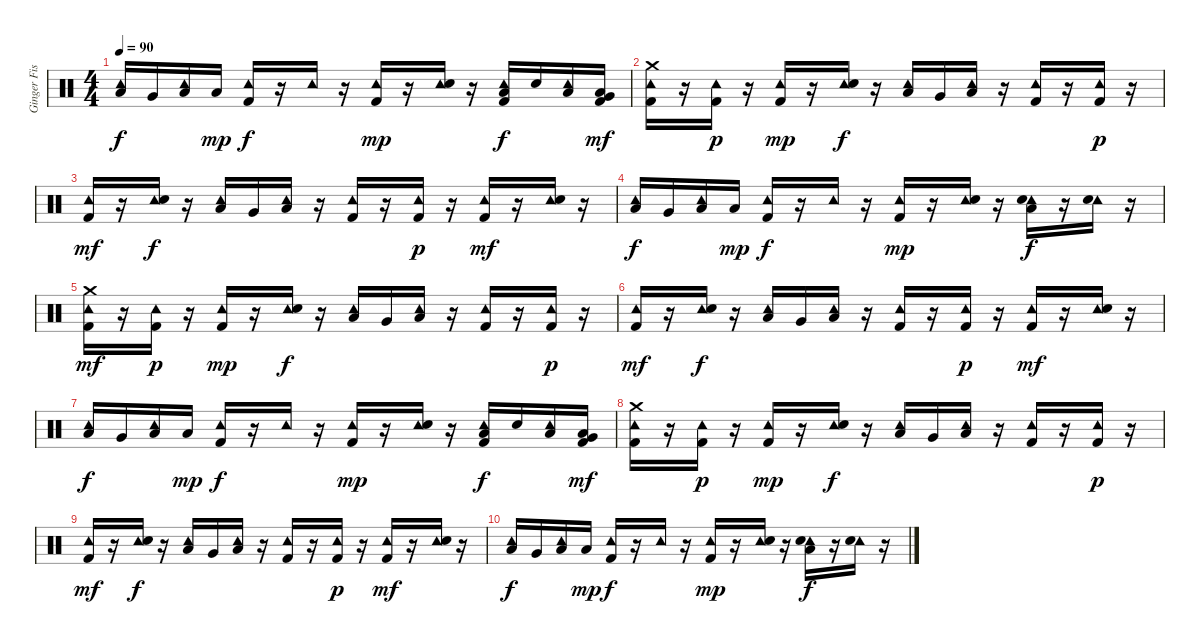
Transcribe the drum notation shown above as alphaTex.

\track ("Ginger Fish" "Ginger Fis") {instrument percussion}
\staff {score}
\articulation defaults
\ts (4 4)
\tempo 90
\clef neutral
\ks c
("Tambourine (hit)" "Low Floor Tom (hit)").16{dy f} "Very Low Tom (hit)".16 ("Tambourine (hit)" "Low Floor Tom (hit)").16 "Low Tom (hit)".16{dy mp} ("Tambourine (hit)" "Kick (hit) 2").16{dy f} r.16 "Tambourine (hit)".16 r.16 ("Tambourine (hit)" "Kick (hit) 2").16{dy mp} r.16 ("Tambourine (hit)" "Electric Snare (hit)").16 r.16 ("Tambourine (hit)" "Kick (hit) 2" "Low Floor Tom (hit)").16{dy f} "Electric Snare (hit)".16 ("Tambourine (hit)" "Low Floor Tom (hit)").16 ("Kick (hit) 2" "Low Tom (hit)" "Very Low Tom (hit)").16{dy mf} |
("Tambourine (hit)" "Crash medium (hit)" "Kick (hit) 2").16 r.16 ("Tambourine (hit)" "Kick (hit) 2").16{dy p} r.16 ("Tambourine (hit)" "Kick (hit) 2").16{dy mp} r.16 ("Tambourine (hit)" "Electric Snare (hit)").16{dy f} r.16 ("Tambourine (hit)" "Low Floor Tom (hit)").16 "Very Low Tom (hit)".16 ("Tambourine (hit)" "Low Floor Tom (hit)").16 r.16 ("Tambourine (hit)" "Kick (hit) 2").16 r.16 ("Tambourine (hit)" "Kick (hit) 2").16{dy p} r.16 |
("Tambourine (hit)" "Kick (hit) 2").16{dy mf} r.16 ("Tambourine (hit)" "Electric Snare (hit)").16{dy f} r.16 ("Tambourine (hit)" "Low Floor Tom (hit)").16 "Very Low Tom (hit)".16 ("Tambourine (hit)" "Low Floor Tom (hit)").16 r.16 ("Tambourine (hit)" "Kick (hit) 2").16 r.16 ("Tambourine (hit)" "Kick (hit) 2").16{dy p} r.16 ("Tambourine (hit)" "Kick (hit) 2").16{dy mf} r.16 ("Tambourine (hit)" "Electric Snare (hit)").16 r.16 |
("Tambourine (hit)" "Low Floor Tom (hit)").16{dy f} "Very Low Tom (hit)".16 ("Tambourine (hit)" "Low Floor Tom (hit)").16 "Low Tom (hit)".16{dy mp} ("Tambourine (hit)" "Kick (hit) 2").16{dy f} r.16 "Tambourine (hit)".16 r.16 ("Tambourine (hit)" "Kick (hit) 2").16{dy mp} r.16 ("Tambourine (hit)" "Electric Snare (hit)").16 r.16 ("Tambourine (hit)" "Electric Snare (hit)" "Low Floor Tom (hit)").16{dy f} r.16 ("Tambourine (hit)" "Electric Snare (hit)").16 r.16 |
("Tambourine (hit)" "Crash medium (hit)" "Kick (hit) 2").16{dy mf} r.16 ("Tambourine (hit)" "Kick (hit) 2").16{dy p} r.16 ("Tambourine (hit)" "Kick (hit) 2").16{dy mp} r.16 ("Tambourine (hit)" "Electric Snare (hit)").16{dy f} r.16 ("Tambourine (hit)" "Low Floor Tom (hit)").16 "Very Low Tom (hit)".16 ("Tambourine (hit)" "Low Floor Tom (hit)").16 r.16 ("Tambourine (hit)" "Kick (hit) 2").16 r.16 ("Tambourine (hit)" "Kick (hit) 2").16{dy p} r.16 |
("Tambourine (hit)" "Kick (hit) 2").16{dy mf} r.16 ("Tambourine (hit)" "Electric Snare (hit)").16{dy f} r.16 ("Tambourine (hit)" "Low Floor Tom (hit)").16 "Very Low Tom (hit)".16 ("Tambourine (hit)" "Low Floor Tom (hit)").16 r.16 ("Tambourine (hit)" "Kick (hit) 2").16 r.16 ("Tambourine (hit)" "Kick (hit) 2").16{dy p} r.16 ("Tambourine (hit)" "Kick (hit) 2").16{dy mf} r.16 ("Tambourine (hit)" "Electric Snare (hit)").16 r.16 |
("Tambourine (hit)" "Low Floor Tom (hit)").16{dy f} "Very Low Tom (hit)".16 ("Tambourine (hit)" "Low Floor Tom (hit)").16 "Low Tom (hit)".16{dy mp} ("Tambourine (hit)" "Kick (hit) 2").16{dy f} r.16 "Tambourine (hit)".16 r.16 ("Tambourine (hit)" "Kick (hit) 2").16{dy mp} r.16 ("Tambourine (hit)" "Electric Snare (hit)").16 r.16 ("Tambourine (hit)" "Kick (hit) 2" "Low Floor Tom (hit)").16{dy f} "Electric Snare (hit)".16 ("Tambourine (hit)" "Low Floor Tom (hit)").16 ("Kick (hit) 2" "Low Tom (hit)" "Very Low Tom (hit)").16{dy mf} |
("Tambourine (hit)" "Crash medium (hit)" "Kick (hit) 2").16 r.16 ("Tambourine (hit)" "Kick (hit) 2").16{dy p} r.16 ("Tambourine (hit)" "Kick (hit) 2").16{dy mp} r.16 ("Tambourine (hit)" "Electric Snare (hit)").16{dy f} r.16 ("Tambourine (hit)" "Low Floor Tom (hit)").16 "Very Low Tom (hit)".16 ("Tambourine (hit)" "Low Floor Tom (hit)").16 r.16 ("Tambourine (hit)" "Kick (hit) 2").16 r.16 ("Tambourine (hit)" "Kick (hit) 2").16{dy p} r.16 |
("Tambourine (hit)" "Kick (hit) 2").16{dy mf} r.16 ("Tambourine (hit)" "Electric Snare (hit)").16{dy f} r.16 ("Tambourine (hit)" "Low Floor Tom (hit)").16 "Very Low Tom (hit)".16 ("Tambourine (hit)" "Low Floor Tom (hit)").16 r.16 ("Tambourine (hit)" "Kick (hit) 2").16 r.16 ("Tambourine (hit)" "Kick (hit) 2").16{dy p} r.16 ("Tambourine (hit)" "Kick (hit) 2").16{dy mf} r.16 ("Tambourine (hit)" "Electric Snare (hit)").16 r.16 |
("Tambourine (hit)" "Low Floor Tom (hit)").16{dy f} "Very Low Tom (hit)".16 ("Tambourine (hit)" "Low Floor Tom (hit)").16 "Low Tom (hit)".16{dy mp} ("Tambourine (hit)" "Kick (hit) 2").16{dy f} r.16 "Tambourine (hit)".16 r.16 ("Tambourine (hit)" "Kick (hit) 2").16{dy mp} r.16 ("Tambourine (hit)" "Electric Snare (hit)").16 r.16 ("Tambourine (hit)" "Electric Snare (hit)" "Low Floor Tom (hit)").16{dy f} r.16 ("Tambourine (hit)" "Electric Snare (hit)").16 r.16
